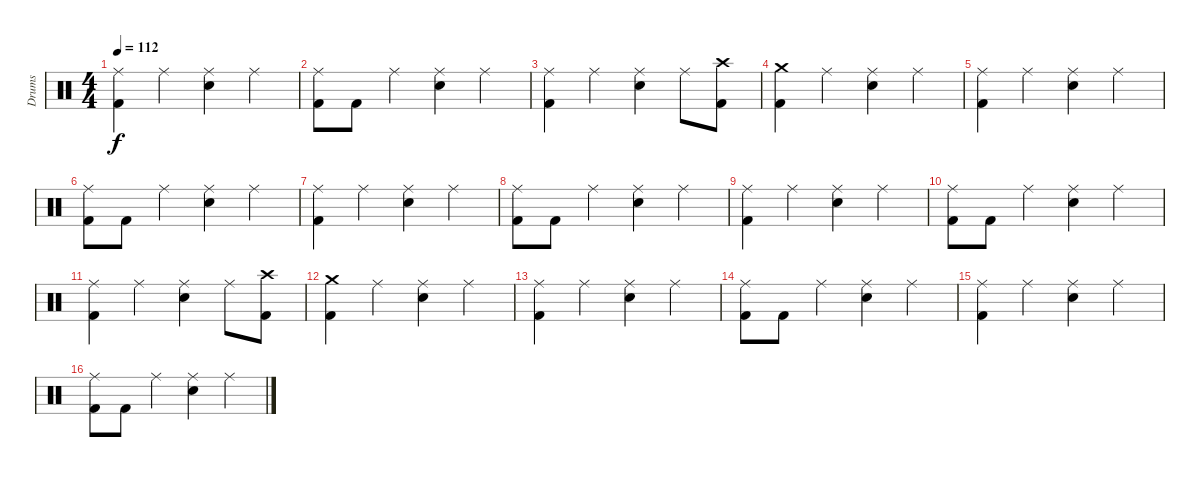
\track ("Drums" "Drums") {instrument percussion}
\staff {score}
\articulation defaults
\ts (4 4)
\tempo 112
\clef neutral
\ks c
("Ride (middle)" "Kick (hit) 2").4{dy f} "Ride (middle)".4 ("Ride (middle)" "Snare (hit) 2").4 "Ride (middle)".4 |
("Ride (middle)" "Kick (hit) 2").8 "Kick (hit) 2".8 "Ride (middle)".4 ("Ride (middle)" "Snare (hit) 2").4 "Ride (middle)".4 |
("Ride (middle)" "Kick (hit) 2").4 "Ride (middle)".4 ("Ride (middle)" "Snare (hit) 2").4 "Ride (middle)".8 ("Crash high (hit)" "Kick (hit) 2").8 |
("Crash medium (hit)" "Kick (hit) 2").4 "Ride (middle)".4 ("Ride (middle)" "Snare (hit) 2").4 "Ride (middle)".4 |
("Ride (middle)" "Kick (hit) 2").4 "Ride (middle)".4 ("Ride (middle)" "Snare (hit) 2").4 "Ride (middle)".4 |
("Ride (middle)" "Kick (hit) 2").8 "Kick (hit) 2".8 "Ride (middle)".4 ("Ride (middle)" "Snare (hit) 2").4 "Ride (middle)".4 |
("Ride (middle)" "Kick (hit) 2").4 "Ride (middle)".4 ("Ride (middle)" "Snare (hit) 2").4 "Ride (middle)".4 |
("Ride (middle)" "Kick (hit) 2").8 "Kick (hit) 2".8 "Ride (middle)".4 ("Ride (middle)" "Snare (hit) 2").4 "Ride (middle)".4 |
("Ride (middle)" "Kick (hit) 2").4 "Ride (middle)".4 ("Ride (middle)" "Snare (hit) 2").4 "Ride (middle)".4 |
("Ride (middle)" "Kick (hit) 2").8 "Kick (hit) 2".8 "Ride (middle)".4 ("Ride (middle)" "Snare (hit) 2").4 "Ride (middle)".4 |
("Ride (middle)" "Kick (hit) 2").4 "Ride (middle)".4 ("Ride (middle)" "Snare (hit) 2").4 "Ride (middle)".8 ("Crash high (hit)" "Kick (hit) 2").8 |
("Crash medium (hit)" "Kick (hit) 2").4 "Ride (middle)".4 ("Ride (middle)" "Snare (hit) 2").4 "Ride (middle)".4 |
("Ride (middle)" "Kick (hit) 2").4 "Ride (middle)".4 ("Ride (middle)" "Snare (hit) 2").4 "Ride (middle)".4 |
("Ride (middle)" "Kick (hit) 2").8 "Kick (hit) 2".8 "Ride (middle)".4 ("Ride (middle)" "Snare (hit) 2").4 "Ride (middle)".4 |
("Ride (middle)" "Kick (hit) 2").4 "Ride (middle)".4 ("Ride (middle)" "Snare (hit) 2").4 "Ride (middle)".4 |
("Ride (middle)" "Kick (hit) 2").8 "Kick (hit) 2".8 "Ride (middle)".4 ("Ride (middle)" "Snare (hit) 2").4 "Ride (middle)".4
